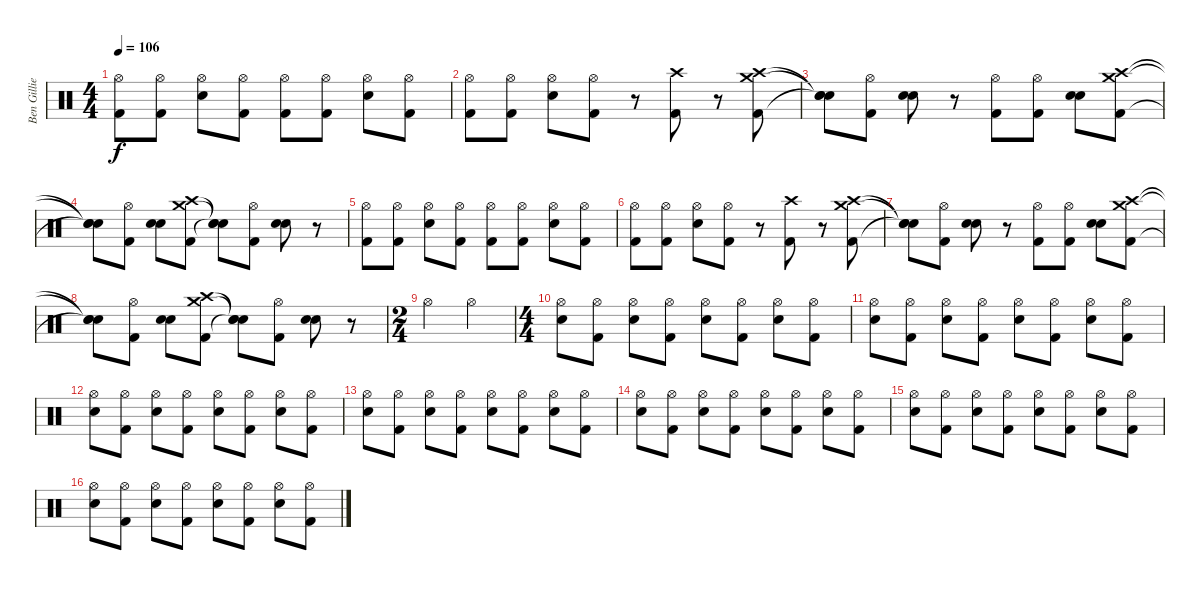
\track ("Ben Gillies" "Ben Gillie") {instrument percussion}
\staff {score}
\articulation defaults
\ts (4 4)
\tempo 106
\clef neutral
\ks c
("Hi-Hat (open)" "Kick (hit) 2").8{dy f} ("Hi-Hat (open)" "Kick (hit) 2").8 ("Hi-Hat (open)" "Electric Snare (hit)").8 ("Hi-Hat (open)" "Kick (hit) 2").8 ("Hi-Hat (open)" "Kick (hit) 2").8 ("Hi-Hat (open)" "Kick (hit) 2").8 ("Hi-Hat (open)" "Electric Snare (hit)").8 ("Hi-Hat (open)" "Kick (hit) 2").8 |
("Hi-Hat (open)" "Kick (hit) 2").8 ("Hi-Hat (open)" "Kick (hit) 2").8 ("Hi-Hat (open)" "Electric Snare (hit)").8 ("Hi-Hat (open)" "Kick (hit) 2").8 r.8 ("Crash high (hit)" "Kick (hit) 2").8 r.8 ("Crash high (hit)" "Crash medium (hit)" "Kick (hit) 2").8 |
("Snare (hit)"{t} "Snare (hit)"{t} "Snare (hit)"{t}).8 ("Hi-Hat (open)" "Kick (hit) 2").8 ("Electric Snare (hit)" "Electric Snare (hit)").8 r.8 ("Hi-Hat (open)" "Kick (hit) 2").8 ("Hi-Hat (open)" "Kick (hit) 2").8 ("Electric Snare (hit)" "Electric Snare (hit)").8 ("Crash high (hit)" "Crash medium (hit)" "Kick (hit) 2").8 |
("Snare (hit)"{t} "Snare (hit)"{t} "Snare (hit)"{t}).8 ("Hi-Hat (open)" "Kick (hit) 2").8 ("Electric Snare (hit)" "Electric Snare (hit)").8 ("Crash high (hit)" "Crash medium (hit)" "Kick (hit) 2").8 ("Snare (hit)"{t} "Snare (hit)"{t} "Snare (hit)"{t}).8 ("Hi-Hat (open)" "Kick (hit) 2").8 ("Electric Snare (hit)" "Electric Snare (hit)").8 r.8 |
("Hi-Hat (open)" "Kick (hit) 2").8 ("Hi-Hat (open)" "Kick (hit) 2").8 ("Hi-Hat (open)" "Electric Snare (hit)").8 ("Hi-Hat (open)" "Kick (hit) 2").8 ("Hi-Hat (open)" "Kick (hit) 2").8 ("Hi-Hat (open)" "Kick (hit) 2").8 ("Hi-Hat (open)" "Electric Snare (hit)").8 ("Hi-Hat (open)" "Kick (hit) 2").8 |
("Hi-Hat (open)" "Kick (hit) 2").8 ("Hi-Hat (open)" "Kick (hit) 2").8 ("Hi-Hat (open)" "Electric Snare (hit)").8 ("Hi-Hat (open)" "Kick (hit) 2").8 r.8 ("Crash high (hit)" "Kick (hit) 2").8 r.8 ("Crash high (hit)" "Crash medium (hit)" "Kick (hit) 2").8 |
("Snare (hit)"{t} "Snare (hit)"{t} "Snare (hit)"{t}).8 ("Hi-Hat (open)" "Kick (hit) 2").8 ("Electric Snare (hit)" "Electric Snare (hit)").8 r.8 ("Hi-Hat (open)" "Kick (hit) 2").8 ("Hi-Hat (open)" "Kick (hit) 2").8 ("Electric Snare (hit)" "Electric Snare (hit)").8 ("Crash high (hit)" "Crash medium (hit)" "Kick (hit) 2").8 |
("Snare (hit)"{t} "Snare (hit)"{t} "Snare (hit)"{t}).8 ("Hi-Hat (open)" "Kick (hit) 2").8 ("Electric Snare (hit)" "Electric Snare (hit)").8 ("Crash high (hit)" "Crash medium (hit)" "Kick (hit) 2").8 ("Snare (hit)"{t} "Snare (hit)"{t} "Snare (hit)"{t}).8 ("Hi-Hat (open)" "Kick (hit) 2").8 ("Electric Snare (hit)" "Electric Snare (hit)").8 r.8 |
\ts (2 4)
"Hi-Hat (open)".4 "Hi-Hat (open)".4 |
\ts (4 4)
("Hi-Hat (open)" "Electric Snare (hit)").8 ("Hi-Hat (open)" "Kick (hit) 2").8 ("Hi-Hat (open)" "Electric Snare (hit)").8 ("Hi-Hat (open)" "Kick (hit) 2").8 ("Hi-Hat (open)" "Electric Snare (hit)").8 ("Hi-Hat (open)" "Kick (hit) 2").8 ("Hi-Hat (open)" "Electric Snare (hit)").8 ("Hi-Hat (open)" "Kick (hit) 2").8 |
("Hi-Hat (open)" "Electric Snare (hit)").8 ("Hi-Hat (open)" "Kick (hit) 2").8 ("Hi-Hat (open)" "Electric Snare (hit)").8 ("Hi-Hat (open)" "Kick (hit) 2").8 ("Hi-Hat (open)" "Electric Snare (hit)").8 ("Hi-Hat (open)" "Kick (hit) 2").8 ("Hi-Hat (open)" "Electric Snare (hit)").8 ("Hi-Hat (open)" "Kick (hit) 2").8 |
("Hi-Hat (open)" "Electric Snare (hit)").8 ("Hi-Hat (open)" "Kick (hit) 2").8 ("Hi-Hat (open)" "Electric Snare (hit)").8 ("Hi-Hat (open)" "Kick (hit) 2").8 ("Hi-Hat (open)" "Electric Snare (hit)").8 ("Hi-Hat (open)" "Kick (hit) 2").8 ("Hi-Hat (open)" "Electric Snare (hit)").8 ("Hi-Hat (open)" "Kick (hit) 2").8 |
("Hi-Hat (open)" "Electric Snare (hit)").8 ("Hi-Hat (open)" "Kick (hit) 2").8 ("Hi-Hat (open)" "Electric Snare (hit)").8 ("Hi-Hat (open)" "Kick (hit) 2").8 ("Hi-Hat (open)" "Electric Snare (hit)").8 ("Hi-Hat (open)" "Kick (hit) 2").8 ("Hi-Hat (open)" "Electric Snare (hit)").8 ("Hi-Hat (open)" "Kick (hit) 2").8 |
("Hi-Hat (open)" "Electric Snare (hit)").8 ("Hi-Hat (open)" "Kick (hit) 2").8 ("Hi-Hat (open)" "Electric Snare (hit)").8 ("Hi-Hat (open)" "Kick (hit) 2").8 ("Hi-Hat (open)" "Electric Snare (hit)").8 ("Hi-Hat (open)" "Kick (hit) 2").8 ("Hi-Hat (open)" "Electric Snare (hit)").8 ("Hi-Hat (open)" "Kick (hit) 2").8 |
("Hi-Hat (open)" "Electric Snare (hit)").8 ("Hi-Hat (open)" "Kick (hit) 2").8 ("Hi-Hat (open)" "Electric Snare (hit)").8 ("Hi-Hat (open)" "Kick (hit) 2").8 ("Hi-Hat (open)" "Electric Snare (hit)").8 ("Hi-Hat (open)" "Kick (hit) 2").8 ("Hi-Hat (open)" "Electric Snare (hit)").8 ("Hi-Hat (open)" "Kick (hit) 2").8 |
("Hi-Hat (open)" "Electric Snare (hit)").8 ("Hi-Hat (open)" "Kick (hit) 2").8 ("Hi-Hat (open)" "Electric Snare (hit)").8 ("Hi-Hat (open)" "Kick (hit) 2").8 ("Hi-Hat (open)" "Electric Snare (hit)").8 ("Hi-Hat (open)" "Kick (hit) 2").8 ("Hi-Hat (open)" "Electric Snare (hit)").8 ("Hi-Hat (open)" "Kick (hit) 2").8
